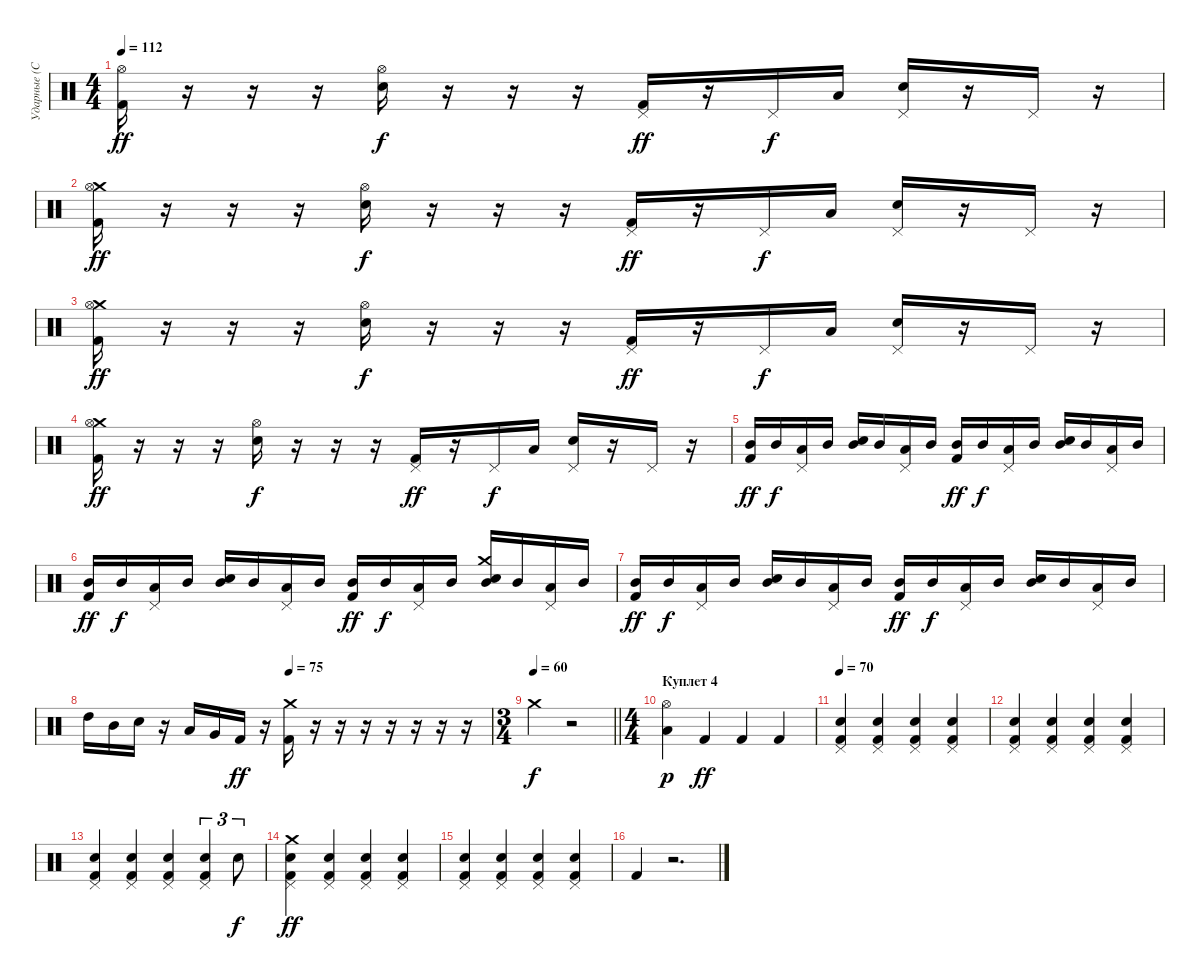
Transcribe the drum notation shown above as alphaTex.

\track ("Ударные (С.Кавагое)" "Ударные (С") {instrument percussion}
\staff {score}
\articulation defaults
\ts (4 4)
\tempo 112
\clef neutral
\ks c
("Hi-Hat (open)" "Kick (hit) 2").16{dy ff} r.16 r.16 r.16 ("Hi-Hat (open)" "Electric Snare (hit)").16{dy f} r.16 r.16 r.16 ("Pedal Hi-Hat (hit)" "Kick (hit) 2").16{dy ff} r.16 "Pedal Hi-Hat (hit)".16{dy f} "Low Tom (hit)".16 ("Pedal Hi-Hat (hit)" "Electric Snare (hit)").16 r.16 "Pedal Hi-Hat (hit)".16 r.16 |
("Crash medium (hit)" "Hi-Hat (open)" "Kick (hit) 2").16{dy ff} r.16 r.16 r.16 ("Hi-Hat (open)" "Electric Snare (hit)").16{dy f} r.16 r.16 r.16 ("Pedal Hi-Hat (hit)" "Kick (hit) 2").16{dy ff} r.16 "Pedal Hi-Hat (hit)".16{dy f} "Low Tom (hit)".16 ("Pedal Hi-Hat (hit)" "Electric Snare (hit)").16 r.16 "Pedal Hi-Hat (hit)".16 r.16 |
("Crash medium (hit)" "Hi-Hat (open)" "Kick (hit) 2").16{dy ff} r.16 r.16 r.16 ("Hi-Hat (open)" "Electric Snare (hit)").16{dy f} r.16 r.16 r.16 ("Pedal Hi-Hat (hit)" "Kick (hit) 2").16{dy ff} r.16 "Pedal Hi-Hat (hit)".16{dy f} "Low Tom (hit)".16 ("Pedal Hi-Hat (hit)" "Electric Snare (hit)").16 r.16 "Pedal Hi-Hat (hit)".16 r.16 |
("Crash medium (hit)" "Hi-Hat (open)" "Kick (hit) 2").16{dy ff} r.16 r.16 r.16 ("Hi-Hat (open)" "Electric Snare (hit)").16{dy f} r.16 r.16 r.16 ("Pedal Hi-Hat (hit)" "Kick (hit) 2").16{dy ff} r.16 "Pedal Hi-Hat (hit)".16{dy f} "Low Tom (hit)".16 ("Pedal Hi-Hat (hit)" "Electric Snare (hit)").16 r.16 "Pedal Hi-Hat (hit)".16 r.16 |
("Mid Tom (hit)" "Kick (hit) 2").16{dy ff} "Mid Tom (hit)".16{dy f} ("Pedal Hi-Hat (hit)" "Low Tom (hit)").16 "Mid Tom (hit)".16 ("Mid Tom (hit)" "Electric Snare (hit)").16 "Mid Tom (hit)".16 ("Pedal Hi-Hat (hit)" "Low Tom (hit)").16 "Mid Tom (hit)".16 ("Mid Tom (hit)" "Kick (hit) 2").16{dy ff} "Mid Tom (hit)".16{dy f} ("Pedal Hi-Hat (hit)" "Low Tom (hit)").16 "Mid Tom (hit)".16 ("Mid Tom (hit)" "Electric Snare (hit)").16 "Mid Tom (hit)".16 ("Pedal Hi-Hat (hit)" "Low Tom (hit)").16 "Mid Tom (hit)".16 |
("Mid Tom (hit)" "Kick (hit) 2").16{dy ff} "Mid Tom (hit)".16{dy f} ("Pedal Hi-Hat (hit)" "Low Tom (hit)").16 "Mid Tom (hit)".16 ("Mid Tom (hit)" "Electric Snare (hit)").16 "Mid Tom (hit)".16 ("Pedal Hi-Hat (hit)" "Low Tom (hit)").16 "Mid Tom (hit)".16 ("Mid Tom (hit)" "Kick (hit) 2").16{dy ff} "Mid Tom (hit)".16{dy f} ("Pedal Hi-Hat (hit)" "Low Tom (hit)").16 "Mid Tom (hit)".16 ("Crash medium (hit)" "Mid Tom (hit)" "Electric Snare (hit)").16 "Mid Tom (hit)".16 ("Pedal Hi-Hat (hit)" "Low Tom (hit)").16 "Mid Tom (hit)".16 |
("Mid Tom (hit)" "Kick (hit) 2").16{dy ff} "Mid Tom (hit)".16{dy f} ("Pedal Hi-Hat (hit)" "Low Tom (hit)").16 "Mid Tom (hit)".16 ("Mid Tom (hit)" "Electric Snare (hit)").16 "Mid Tom (hit)".16 ("Pedal Hi-Hat (hit)" "Low Tom (hit)").16 "Mid Tom (hit)".16 ("Mid Tom (hit)" "Kick (hit) 2").16{dy ff} "Mid Tom (hit)".16{dy f} ("Pedal Hi-Hat (hit)" "Low Tom (hit)").16 "Mid Tom (hit)".16 ("Mid Tom (hit)" "Electric Snare (hit)").16 "Mid Tom (hit)".16 ("Pedal Hi-Hat (hit)" "Low Tom (hit)").16 "Mid Tom (hit)".16 |
\tempo (75 0.5)
"High Tom (hit)".16 "Mid Tom (hit)".16 "Electric Snare (hit)".16 r.16 "Low Tom (hit)".16 "Very Low Tom (hit)".16 "Kick (hit) 2".16{dy ff} r.16 ("Crash medium (hit)" "Kick (hit) 2").16 r.16 r.16 r.16 r.16 r.16 r.16 r.16 |
\ts (3 4)
\tempo 60
\barLineRight lightlight "Crash medium (hit)".4{dy f}
r.2 |
\ts (4 4)
\section ("" "Куплет 4")
("Hi-Hat (open)" "Low Tom (hit)").4{dy p} "Kick (hit) 2".4{dy ff} "Kick (hit) 2".4 "Kick (hit) 2".4 |
\tempo 70
("Pedal Hi-Hat (hit)" "Electric Snare (hit)" "Kick (hit) 2").4 ("Pedal Hi-Hat (hit)" "Electric Snare (hit)" "Kick (hit) 2").4 ("Pedal Hi-Hat (hit)" "Electric Snare (hit)" "Kick (hit) 2").4 ("Pedal Hi-Hat (hit)" "Electric Snare (hit)" "Kick (hit) 2").4 |
("Pedal Hi-Hat (hit)" "Electric Snare (hit)" "Kick (hit) 2").4 ("Pedal Hi-Hat (hit)" "Electric Snare (hit)" "Kick (hit) 2").4 ("Pedal Hi-Hat (hit)" "Electric Snare (hit)" "Kick (hit) 2").4 ("Pedal Hi-Hat (hit)" "Electric Snare (hit)" "Kick (hit) 2").4 |
("Pedal Hi-Hat (hit)" "Electric Snare (hit)" "Kick (hit) 2").4 ("Pedal Hi-Hat (hit)" "Electric Snare (hit)" "Kick (hit) 2").4 ("Pedal Hi-Hat (hit)" "Electric Snare (hit)" "Kick (hit) 2").4 ("Pedal Hi-Hat (hit)" "Electric Snare (hit)" "Kick (hit) 2").4{tu (3 2)} "Electric Snare (hit)".8{tu (3 2) dy f} |
("Crash medium (hit)" "Pedal Hi-Hat (hit)" "Electric Snare (hit)" "Kick (hit) 2").4{dy ff} ("Pedal Hi-Hat (hit)" "Electric Snare (hit)" "Kick (hit) 2").4 ("Pedal Hi-Hat (hit)" "Electric Snare (hit)" "Kick (hit) 2").4 ("Pedal Hi-Hat (hit)" "Electric Snare (hit)" "Kick (hit) 2").4 |
("Pedal Hi-Hat (hit)" "Electric Snare (hit)" "Kick (hit) 2").4 ("Pedal Hi-Hat (hit)" "Electric Snare (hit)" "Kick (hit) 2").4 ("Pedal Hi-Hat (hit)" "Electric Snare (hit)" "Kick (hit) 2").4 ("Pedal Hi-Hat (hit)" "Electric Snare (hit)" "Kick (hit) 2").4 |
"Kick (hit) 2".4 r.2{d}
